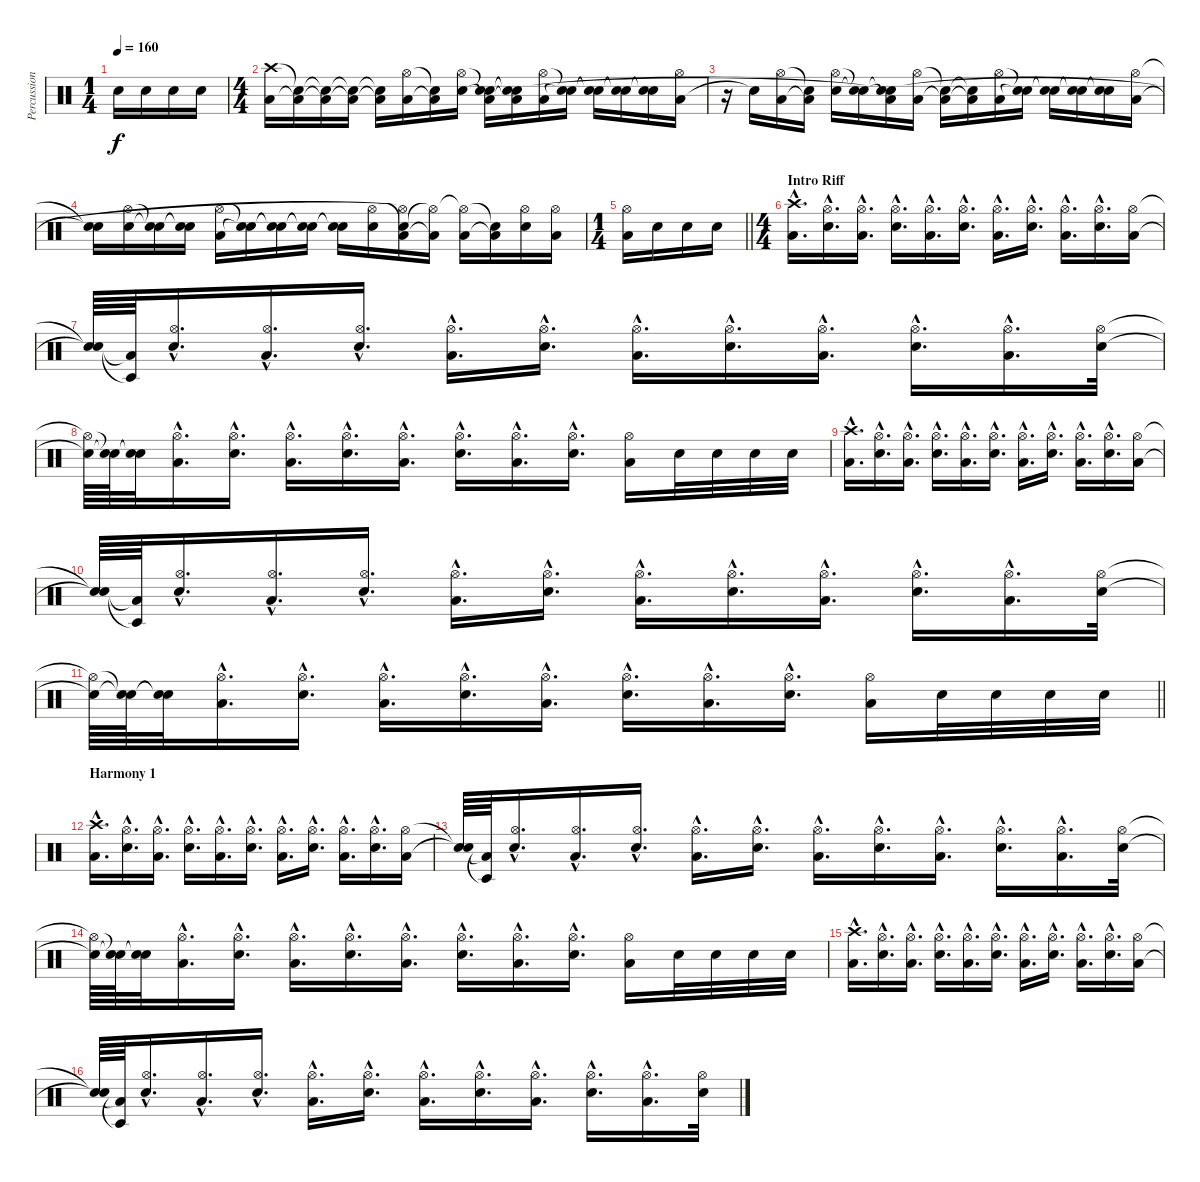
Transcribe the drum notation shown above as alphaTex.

\track ("Percussion 1" "Percussion") {instrument percussion}
\staff {score}
\articulation defaults
\ts (1 4)
\tempo 160
\clef neutral
\ks c "Snare (hit) 2".16{dy f} "Snare (hit) 2".16 "Snare (hit) 2".16 "Snare (hit) 2".16
|
\ts (4 4)
("Low Floor Tom (hit)" "Crash high (hit)").16 ("Low Floor Tom (hit)"{t} "Snare (hit)"{t}).16 ("Low Floor Tom (hit)"{t} "Snare (hit)"{t}).16 ("Low Floor Tom (hit)"{t} "Snare (hit)"{t}).16 ("Low Floor Tom (hit)"{t} "Snare (hit)"{t}).16 ("Low Floor Tom (hit)" "Hi-Hat (open)").16 ("Low Floor Tom (hit)"{t} "Snare (hit)"{t}).16 ("Snare (hit) 2" "Hi-Hat (open)").16 ("Low Floor Tom (hit)"{t} "Snare (hit)"{t} "Snare (hit)"{t}).16 ("Low Floor Tom (hit)"{t} "Snare (hit)"{t} "Snare (hit)"{t}).16 ("Low Floor Tom (hit)" "Hi-Hat (open)").16 ("Snare (hit)"{t} "Snare (hit)"{t}).16 ("Snare (hit)"{t} "Snare (hit)"{t}).16 ("Snare (hit)"{t} "Snare (hit)"{t}).16 ("Snare (hit)"{t} "Snare (hit)"{t}).16 ("Low Floor Tom (hit)" "Hi-Hat (open)").16 |
r.16 "Snare (hit)"{t}.16 ("Low Floor Tom (hit)" "Hi-Hat (open)").16 ("Low Floor Tom (hit)"{t} "Snare (hit)"{t}).16 ("Snare (hit) 2" "Hi-Hat (open)").16 ("Snare (hit)"{t} "Snare (hit)"{t}).16 ("Low Floor Tom (hit)"{t} "Snare (hit)"{t} "Snare (hit)"{t}).16 ("Low Floor Tom (hit)" "Hi-Hat (open)").16 ("Low Floor Tom (hit)"{t} "Snare (hit)"{t}).16 ("Low Floor Tom (hit)"{t} "Snare (hit)"{t}).16 ("Low Floor Tom (hit)" "Hi-Hat (open)").16 ("Snare (hit)"{t} "Snare (hit)"{t}).16 ("Snare (hit)"{t} "Snare (hit)"{t}).16 ("Snare (hit)"{t} "Snare (hit)"{t}).16 ("Snare (hit)"{t} "Snare (hit)"{t}).16 ("Low Floor Tom (hit)" "Hi-Hat (open)").16 |
("Snare (hit)"{t} "Snare (hit)"{t}).16 ("Snare (hit) 2" "Hi-Hat (open)").16 ("Snare (hit)"{t} "Snare (hit)"{t}).16 ("Snare (hit)"{t} "Snare (hit)"{t}).16 ("Low Floor Tom (hit)" "Hi-Hat (open)").16 ("Snare (hit)"{t} "Snare (hit)"{t}).16 ("Snare (hit)"{t} "Snare (hit)"{t}).16 ("Snare (hit)"{t} "Snare (hit)"{t}).16 ("Snare (hit)"{t} "Snare (hit)"{t}).16 ("Snare (hit) 2" "Hi-Hat (open)").16 ("Low Floor Tom (hit)" "Snare (hit)"{t} "Hi-Hat (open)"{t}).16 ("Low Floor Tom (hit)"{t} "Hi-Hat (open)"{t}).16 ("Low Floor Tom (hit)" "Hi-Hat (open)"{t}).16 ("Low Floor Tom (hit)"{t} "Snare (hit)"{t}).16 ("Snare (hit) 2" "Hi-Hat (open)").16 ("Low Floor Tom (hit)" "Hi-Hat (open)").16 |
\ts (1 4)
\barLineRight lightlight
("Low Floor Tom (hit)" "Hi-Hat (open)").16 "Snare (hit) 2".16 "Snare (hit) 2".16 "Snare (hit) 2".16 |
\ts (4 4)
\section ("" "Intro Riff")
("Low Floor Tom (hit)"{hac} "Crash high (hit)"{hac}).16{d} ("Snare (hit) 2"{hac} "Hi-Hat (open)"{hac}).16{d} ("Low Floor Tom (hit)"{hac} "Hi-Hat (open)"{hac}).16{d} ("Snare (hit) 2"{hac} "Hi-Hat (open)"{hac}).16{d} ("Low Floor Tom (hit)"{hac} "Hi-Hat (open)"{hac}).16{d} ("Snare (hit) 2"{hac} "Hi-Hat (open)"{hac}).16{d} ("Low Floor Tom (hit)"{hac} "Hi-Hat (open)"{hac}).16{d} ("Snare (hit) 2"{hac} "Hi-Hat (open)"{hac}).16{d} ("Low Floor Tom (hit)"{hac} "Hi-Hat (open)"{hac}).16{d} ("Snare (hit) 2"{hac} "Hi-Hat (open)"{hac}).16{d} ("Low Floor Tom (hit)" "Hi-Hat (open)").16 |
("Snare (hit)"{t} "Snare (hit)"{t}).64 ("Low Floor Tom (hit)"{t} "Timbale low (hit)"{t}).64 ("Snare (hit) 2"{hac} "Hi-Hat (open)"{hac}).16{d} ("Low Floor Tom (hit)"{hac} "Hi-Hat (open)"{hac}).16{d} ("Snare (hit) 2"{hac} "Hi-Hat (open)"{hac}).16{d} ("Low Floor Tom (hit)"{hac} "Hi-Hat (open)"{hac}).16{d} ("Snare (hit) 2"{hac} "Hi-Hat (open)"{hac}).16{d} ("Low Floor Tom (hit)"{hac} "Hi-Hat (open)"{hac}).16{d} ("Snare (hit) 2"{hac} "Hi-Hat (open)"{hac}).16{d} ("Low Floor Tom (hit)"{hac} "Hi-Hat (open)"{hac}).16{d} ("Snare (hit) 2"{hac} "Hi-Hat (open)"{hac}).16{d} ("Low Floor Tom (hit)"{hac} "Hi-Hat (open)"{hac}).16{d} ("Snare (hit) 2" "Hi-Hat (open)").32 |
("Snare (hit) 2"{t} "Hi-Hat (open)"{t}).64 ("Snare (hit)"{t} "Snare (hit)"{t}).64 ("Snare (hit)"{t} "Snare (hit)"{t}).32 ("Low Floor Tom (hit)"{hac} "Hi-Hat (open)"{hac}).16{d} ("Snare (hit) 2"{hac} "Hi-Hat (open)"{hac}).16{d} ("Low Floor Tom (hit)"{hac} "Hi-Hat (open)"{hac}).16{d} ("Snare (hit) 2"{hac} "Hi-Hat (open)"{hac}).16{d} ("Low Floor Tom (hit)"{hac} "Hi-Hat (open)"{hac}).16{d} ("Snare (hit) 2"{hac} "Hi-Hat (open)"{hac}).16{d} ("Low Floor Tom (hit)"{hac} "Hi-Hat (open)"{hac}).16{d} ("Snare (hit) 2"{hac} "Hi-Hat (open)"{hac}).16{d} ("Low Floor Tom (hit)" "Hi-Hat (open)").16 "Snare (hit) 2".32 "Snare (hit) 2".32 "Snare (hit) 2".32 "Snare (hit) 2".32 |
("Low Floor Tom (hit)"{hac} "Crash high (hit)"{hac}).16{d} ("Snare (hit) 2"{hac} "Hi-Hat (open)"{hac}).16{d} ("Low Floor Tom (hit)"{hac} "Hi-Hat (open)"{hac}).16{d} ("Snare (hit) 2"{hac} "Hi-Hat (open)"{hac}).16{d} ("Low Floor Tom (hit)"{hac} "Hi-Hat (open)"{hac}).16{d} ("Snare (hit) 2"{hac} "Hi-Hat (open)"{hac}).16{d} ("Low Floor Tom (hit)"{hac} "Hi-Hat (open)"{hac}).16{d} ("Snare (hit) 2"{hac} "Hi-Hat (open)"{hac}).16{d} ("Low Floor Tom (hit)"{hac} "Hi-Hat (open)"{hac}).16{d} ("Snare (hit) 2"{hac} "Hi-Hat (open)"{hac}).16{d} ("Low Floor Tom (hit)" "Hi-Hat (open)").16 |
("Snare (hit)"{t} "Snare (hit)"{t}).64 ("Low Floor Tom (hit)"{t} "Timbale low (hit)"{t}).64 ("Snare (hit) 2"{hac} "Hi-Hat (open)"{hac}).16{d} ("Low Floor Tom (hit)"{hac} "Hi-Hat (open)"{hac}).16{d} ("Snare (hit) 2"{hac} "Hi-Hat (open)"{hac}).16{d} ("Low Floor Tom (hit)"{hac} "Hi-Hat (open)"{hac}).16{d} ("Snare (hit) 2"{hac} "Hi-Hat (open)"{hac}).16{d} ("Low Floor Tom (hit)"{hac} "Hi-Hat (open)"{hac}).16{d} ("Snare (hit) 2"{hac} "Hi-Hat (open)"{hac}).16{d} ("Low Floor Tom (hit)"{hac} "Hi-Hat (open)"{hac}).16{d} ("Snare (hit) 2"{hac} "Hi-Hat (open)"{hac}).16{d} ("Low Floor Tom (hit)"{hac} "Hi-Hat (open)"{hac}).16{d} ("Snare (hit) 2" "Hi-Hat (open)").32 |
\barLineRight lightlight
("Snare (hit) 2"{t} "Hi-Hat (open)"{t}).64 ("Snare (hit)"{t} "Snare (hit)"{t}).64 ("Snare (hit)"{t} "Snare (hit)"{t}).32 ("Low Floor Tom (hit)"{hac} "Hi-Hat (open)"{hac}).16{d} ("Snare (hit) 2"{hac} "Hi-Hat (open)"{hac}).16{d} ("Low Floor Tom (hit)"{hac} "Hi-Hat (open)"{hac}).16{d} ("Snare (hit) 2"{hac} "Hi-Hat (open)"{hac}).16{d} ("Low Floor Tom (hit)"{hac} "Hi-Hat (open)"{hac}).16{d} ("Snare (hit) 2"{hac} "Hi-Hat (open)"{hac}).16{d} ("Low Floor Tom (hit)"{hac} "Hi-Hat (open)"{hac}).16{d} ("Snare (hit) 2"{hac} "Hi-Hat (open)"{hac}).16{d} ("Low Floor Tom (hit)" "Hi-Hat (open)").16 "Snare (hit) 2".32 "Snare (hit) 2".32 "Snare (hit) 2".32 "Snare (hit) 2".32 |
\section ("" "Harmony 1")
("Low Floor Tom (hit)"{hac} "Crash high (hit)"{hac}).16{d} ("Snare (hit) 2"{hac} "Hi-Hat (open)"{hac}).16{d} ("Low Floor Tom (hit)"{hac} "Hi-Hat (open)"{hac}).16{d} ("Snare (hit) 2"{hac} "Hi-Hat (open)"{hac}).16{d} ("Low Floor Tom (hit)"{hac} "Hi-Hat (open)"{hac}).16{d} ("Snare (hit) 2"{hac} "Hi-Hat (open)"{hac}).16{d} ("Low Floor Tom (hit)"{hac} "Hi-Hat (open)"{hac}).16{d} ("Snare (hit) 2"{hac} "Hi-Hat (open)"{hac}).16{d} ("Low Floor Tom (hit)"{hac} "Hi-Hat (open)"{hac}).16{d} ("Snare (hit) 2"{hac} "Hi-Hat (open)"{hac}).16{d} ("Low Floor Tom (hit)" "Hi-Hat (open)").16 |
("Snare (hit)"{t} "Snare (hit)"{t}).64 ("Low Floor Tom (hit)"{t} "Timbale low (hit)"{t}).64 ("Snare (hit) 2"{hac} "Hi-Hat (open)"{hac}).16{d} ("Low Floor Tom (hit)"{hac} "Hi-Hat (open)"{hac}).16{d} ("Snare (hit) 2"{hac} "Hi-Hat (open)"{hac}).16{d} ("Low Floor Tom (hit)"{hac} "Hi-Hat (open)"{hac}).16{d} ("Snare (hit) 2"{hac} "Hi-Hat (open)"{hac}).16{d} ("Low Floor Tom (hit)"{hac} "Hi-Hat (open)"{hac}).16{d} ("Snare (hit) 2"{hac} "Hi-Hat (open)"{hac}).16{d} ("Low Floor Tom (hit)"{hac} "Hi-Hat (open)"{hac}).16{d} ("Snare (hit) 2"{hac} "Hi-Hat (open)"{hac}).16{d} ("Low Floor Tom (hit)"{hac} "Hi-Hat (open)"{hac}).16{d} ("Snare (hit) 2" "Hi-Hat (open)").32 |
("Snare (hit) 2"{t} "Hi-Hat (open)"{t}).64 ("Snare (hit)"{t} "Snare (hit)"{t}).64 ("Snare (hit)"{t} "Snare (hit)"{t}).32 ("Low Floor Tom (hit)"{hac} "Hi-Hat (open)"{hac}).16{d} ("Snare (hit) 2"{hac} "Hi-Hat (open)"{hac}).16{d} ("Low Floor Tom (hit)"{hac} "Hi-Hat (open)"{hac}).16{d} ("Snare (hit) 2"{hac} "Hi-Hat (open)"{hac}).16{d} ("Low Floor Tom (hit)"{hac} "Hi-Hat (open)"{hac}).16{d} ("Snare (hit) 2"{hac} "Hi-Hat (open)"{hac}).16{d} ("Low Floor Tom (hit)"{hac} "Hi-Hat (open)"{hac}).16{d} ("Snare (hit) 2"{hac} "Hi-Hat (open)"{hac}).16{d} ("Low Floor Tom (hit)" "Hi-Hat (open)").16 "Snare (hit) 2".32 "Snare (hit) 2".32 "Snare (hit) 2".32 "Snare (hit) 2".32 |
("Low Floor Tom (hit)"{hac} "Crash high (hit)"{hac}).16{d} ("Snare (hit) 2"{hac} "Hi-Hat (open)"{hac}).16{d} ("Low Floor Tom (hit)"{hac} "Hi-Hat (open)"{hac}).16{d} ("Snare (hit) 2"{hac} "Hi-Hat (open)"{hac}).16{d} ("Low Floor Tom (hit)"{hac} "Hi-Hat (open)"{hac}).16{d} ("Snare (hit) 2"{hac} "Hi-Hat (open)"{hac}).16{d} ("Low Floor Tom (hit)"{hac} "Hi-Hat (open)"{hac}).16{d} ("Snare (hit) 2"{hac} "Hi-Hat (open)"{hac}).16{d} ("Low Floor Tom (hit)"{hac} "Hi-Hat (open)"{hac}).16{d} ("Snare (hit) 2"{hac} "Hi-Hat (open)"{hac}).16{d} ("Low Floor Tom (hit)" "Hi-Hat (open)").16 |
("Snare (hit)"{t} "Snare (hit)"{t}).64 ("Low Floor Tom (hit)"{t} "Timbale low (hit)"{t}).64 ("Snare (hit) 2"{hac} "Hi-Hat (open)"{hac}).16{d} ("Low Floor Tom (hit)"{hac} "Hi-Hat (open)"{hac}).16{d} ("Snare (hit) 2"{hac} "Hi-Hat (open)"{hac}).16{d} ("Low Floor Tom (hit)"{hac} "Hi-Hat (open)"{hac}).16{d} ("Snare (hit) 2"{hac} "Hi-Hat (open)"{hac}).16{d} ("Low Floor Tom (hit)"{hac} "Hi-Hat (open)"{hac}).16{d} ("Snare (hit) 2"{hac} "Hi-Hat (open)"{hac}).16{d} ("Low Floor Tom (hit)"{hac} "Hi-Hat (open)"{hac}).16{d} ("Snare (hit) 2"{hac} "Hi-Hat (open)"{hac}).16{d} ("Low Floor Tom (hit)"{hac} "Hi-Hat (open)"{hac}).16{d} ("Snare (hit) 2" "Hi-Hat (open)").32
